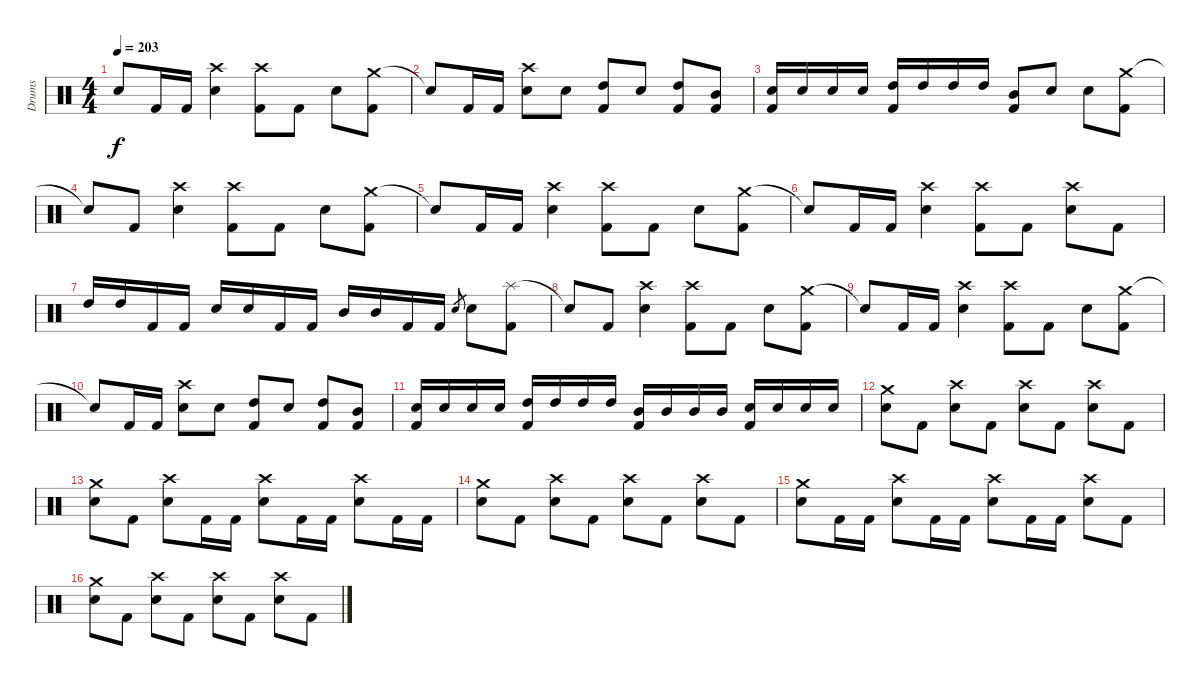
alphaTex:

\track ("Drums" "Drums") {instrument percussion}
\staff {score}
\articulation defaults
\ts (4 4)
\tempo 203
\clef neutral
\ks c "Snare (hit)"{t}.8{dy f} "Kick (hit) 2".16 "Kick (hit) 2".16
("Crash high (hit)" "Electric Snare (hit)").4 ("Crash high (hit)" "Kick (hit) 2").8 "Kick (hit) 2".8 "Electric Snare (hit)".8 ("Crash medium (hit)" "Kick (hit) 2").8 |
"Snare (hit)"{t}.8 "Kick (hit) 2".16 "Kick (hit) 2".16 ("Crash high (hit)" "Electric Snare (hit)").8 "Electric Snare (hit)".8 ("High Tom (hit)" "Kick (hit) 2").8 "Electric Snare (hit)".8 ("High Tom (hit)" "Kick (hit) 2").8 ("Mid Tom (hit)" "Kick (hit) 2").8 |
("Electric Snare (hit)" "Kick (hit) 2").16 "Electric Snare (hit)".16 "Electric Snare (hit)".16 "Electric Snare (hit)".16 ("High Tom (hit)" "Kick (hit) 2").16 "High Tom (hit)".16 "High Tom (hit)".16 "High Tom (hit)".16 ("Mid Tom (hit)" "Kick (hit) 2").8 "Electric Snare (hit)".8 "Electric Snare (hit)".8 ("Crash medium (hit)" "Kick (hit) 2").8 |
"Snare (hit)"{t}.8 "Kick (hit) 2".8 ("Crash high (hit)" "Electric Snare (hit)").4 ("Crash high (hit)" "Kick (hit) 2").8 "Kick (hit) 2".8 "Electric Snare (hit)".8 ("Crash medium (hit)" "Kick (hit) 2").8 |
"Snare (hit)"{t}.8 "Kick (hit) 2".16 "Kick (hit) 2".16 ("Crash high (hit)" "Electric Snare (hit)").4 ("Crash high (hit)" "Kick (hit) 2").8 "Kick (hit) 2".8 "Electric Snare (hit)".8 ("Crash medium (hit)" "Kick (hit) 2").8 |
"Snare (hit)"{t}.8 "Kick (hit) 2".16 "Kick (hit) 2".16 ("Crash high (hit)" "Electric Snare (hit)").4 ("Crash high (hit)" "Kick (hit) 2").8 "Kick (hit) 2".8 ("Crash high (hit)" "Electric Snare (hit)").8 "Kick (hit) 2".8 |
"High Tom (hit)".16 "High Tom (hit)".16 "Kick (hit) 2".16 "Kick (hit) 2".16 "Electric Snare (hit)".16 "Electric Snare (hit)".16 "Kick (hit) 2".16 "Kick (hit) 2".16 "Mid Tom (hit)".16 "Mid Tom (hit)".16 "Kick (hit) 2".16 "Kick (hit) 2".16 "Electric Snare (hit)".8{gr} "Electric Snare (hit)".8 ("Splash (hit)" "Kick (hit) 2").8 |
"Snare (hit)"{t}.8 "Kick (hit) 2".8 ("Crash high (hit)" "Electric Snare (hit)").4 ("Crash high (hit)" "Kick (hit) 2").8 "Kick (hit) 2".8 "Electric Snare (hit)".8 ("Crash medium (hit)" "Kick (hit) 2").8 |
"Snare (hit)"{t}.8 "Kick (hit) 2".16 "Kick (hit) 2".16 ("Crash high (hit)" "Electric Snare (hit)").4 ("Crash high (hit)" "Kick (hit) 2").8 "Kick (hit) 2".8 "Electric Snare (hit)".8 ("Crash medium (hit)" "Kick (hit) 2").8 |
"Snare (hit)"{t}.8 "Kick (hit) 2".16 "Kick (hit) 2".16 ("Crash high (hit)" "Electric Snare (hit)").8 "Electric Snare (hit)".8 ("High Tom (hit)" "Kick (hit) 2").8 "Electric Snare (hit)".8 ("High Tom (hit)" "Kick (hit) 2").8 ("Mid Tom (hit)" "Kick (hit) 2").8 |
("Electric Snare (hit)" "Kick (hit) 2").16 "Electric Snare (hit)".16 "Electric Snare (hit)".16 "Electric Snare (hit)".16 ("High Tom (hit)" "Kick (hit) 2").16 "High Tom (hit)".16 "High Tom (hit)".16 "High Tom (hit)".16 ("Mid Tom (hit)" "Kick (hit) 2").16 "Mid Tom (hit)".16 "Mid Tom (hit)".16 "Mid Tom (hit)".16 ("Electric Snare (hit)" "Kick (hit) 2").16 "Electric Snare (hit)".16 "Electric Snare (hit)".16 "Electric Snare (hit)".16 |
("Crash medium (hit)" "Electric Snare (hit)").8 "Kick (hit) 2".8 ("Crash high (hit)" "Electric Snare (hit)").8 "Kick (hit) 2".8 ("Crash high (hit)" "Electric Snare (hit)").8 "Kick (hit) 2".8 ("Crash high (hit)" "Electric Snare (hit)").8 "Kick (hit) 2".8 |
("Crash medium (hit)" "Electric Snare (hit)").8 "Kick (hit) 2".8 ("Crash high (hit)" "Electric Snare (hit)").8 "Kick (hit) 2".16 "Kick (hit) 2".16 ("Crash high (hit)" "Electric Snare (hit)").8 "Kick (hit) 2".16 "Kick (hit) 2".16 ("Crash high (hit)" "Electric Snare (hit)").8 "Kick (hit) 2".16 "Kick (hit) 2".16 |
("Crash medium (hit)" "Electric Snare (hit)").8 "Kick (hit) 2".8 ("Crash high (hit)" "Electric Snare (hit)").8 "Kick (hit) 2".8 ("Crash high (hit)" "Electric Snare (hit)").8 "Kick (hit) 2".8 ("Crash high (hit)" "Electric Snare (hit)").8 "Kick (hit) 2".8 |
("Crash medium (hit)" "Electric Snare (hit)").8 "Kick (hit) 2".16 "Kick (hit) 2".16 ("Crash high (hit)" "Electric Snare (hit)").8 "Kick (hit) 2".16 "Kick (hit) 2".16 ("Crash high (hit)" "Electric Snare (hit)").8 "Kick (hit) 2".16 "Kick (hit) 2".16 ("Crash high (hit)" "Electric Snare (hit)").8 "Kick (hit) 2".8 |
("Crash medium (hit)" "Electric Snare (hit)").8 "Kick (hit) 2".8 ("Crash high (hit)" "Electric Snare (hit)").8 "Kick (hit) 2".8 ("Crash high (hit)" "Electric Snare (hit)").8 "Kick (hit) 2".8 ("Crash high (hit)" "Electric Snare (hit)").8 "Kick (hit) 2".8
